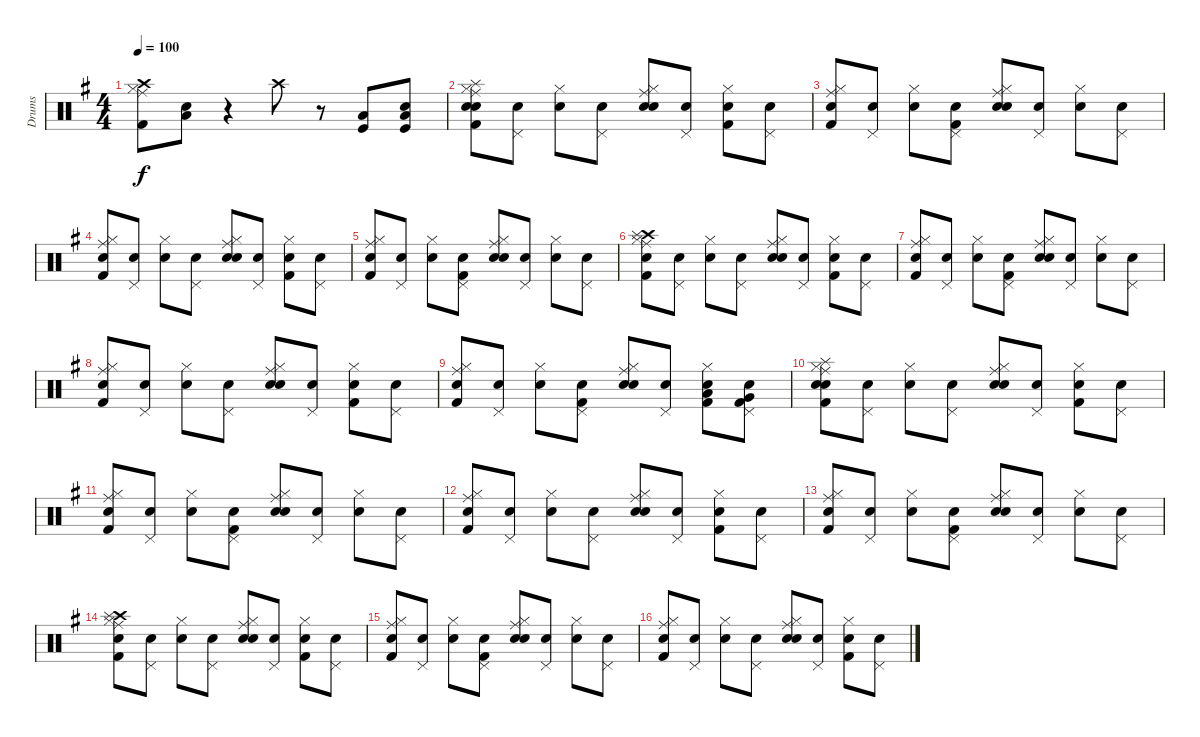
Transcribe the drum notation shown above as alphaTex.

\track ("Drums" "Drums") {instrument percussion}
\staff {score}
\articulation defaults
\ts (4 4)
\tempo 100
\clef neutral
\ks g
("Crash high (hit)" "Ride (middle)" "Hi-Hat (closed)" "Kick (hit) 2").8{dy f} ("Snare (hit)" "Low Tom (hit)").8 r.4 "Crash high (hit)".8 r.8 ("Kick (hit)" "Low Tom (hit)").8 ("Snare (hit)" "Kick (hit)" "Low Tom (hit)").8 |
("Snare (hit)" "Ride (middle)" "Hi-Hat (closed)" "Kick (hit) 2" "Snare (hit) 2" "Splash (hit)").8 ("Snare (hit)" "Pedal Hi-Hat (hit)").8 ("Snare (hit)" "Hi-Hat (closed)").8 ("Snare (hit)" "Pedal Hi-Hat (hit)").8 ("Snare (hit)" "Ride (middle)" "Hi-Hat (closed)" "Snare (hit) 2").8 ("Snare (hit)" "Pedal Hi-Hat (hit)").8 ("Snare (hit)" "Hi-Hat (closed)" "Kick (hit) 2").8 ("Snare (hit)" "Pedal Hi-Hat (hit)").8 |
("Snare (hit)" "Ride (middle)" "Hi-Hat (closed)" "Kick (hit) 2").8 ("Snare (hit)" "Pedal Hi-Hat (hit)").8 ("Snare (hit)" "Hi-Hat (closed)").8 ("Snare (hit)" "Pedal Hi-Hat (hit)" "Kick (hit) 2").8 ("Snare (hit)" "Ride (middle)" "Hi-Hat (closed)" "Snare (hit) 2").8 ("Snare (hit)" "Pedal Hi-Hat (hit)").8 ("Snare (hit)" "Hi-Hat (closed)").8 ("Snare (hit)" "Pedal Hi-Hat (hit)").8 |
("Snare (hit)" "Kick (hit) 2" "Ride (middle)" "Hi-Hat (closed)").8 ("Snare (hit)" "Pedal Hi-Hat (hit)").8 ("Snare (hit)" "Hi-Hat (closed)").8 ("Snare (hit)" "Pedal Hi-Hat (hit)").8 ("Snare (hit)" "Ride (middle)" "Hi-Hat (closed)" "Snare (hit) 2").8 ("Snare (hit)" "Pedal Hi-Hat (hit)").8 ("Snare (hit)" "Hi-Hat (closed)" "Kick (hit) 2").8 ("Snare (hit)" "Pedal Hi-Hat (hit)").8 |
("Snare (hit)" "Ride (middle)" "Hi-Hat (closed)" "Kick (hit) 2").8 ("Snare (hit)" "Pedal Hi-Hat (hit)").8 ("Snare (hit)" "Hi-Hat (closed)").8 ("Snare (hit)" "Pedal Hi-Hat (hit)" "Kick (hit) 2").8 ("Snare (hit)" "Ride (middle)" "Hi-Hat (closed)" "Snare (hit) 2").8 ("Snare (hit)" "Pedal Hi-Hat (hit)").8 ("Snare (hit)" "Hi-Hat (closed)").8 ("Snare (hit)" "Pedal Hi-Hat (hit)").8 |
("Snare (hit)" "Hi-Hat (closed)" "Ride (middle)" "Kick (hit) 2" "Crash high (hit)" "Splash (hit)").8 ("Snare (hit)" "Pedal Hi-Hat (hit)").8 ("Snare (hit)" "Hi-Hat (closed)").8 ("Snare (hit)" "Pedal Hi-Hat (hit)").8 ("Snare (hit)" "Ride (middle)" "Hi-Hat (closed)" "Snare (hit) 2").8 ("Snare (hit)" "Pedal Hi-Hat (hit)").8 ("Snare (hit)" "Hi-Hat (closed)" "Kick (hit) 2").8 ("Snare (hit)" "Pedal Hi-Hat (hit)").8 |
("Snare (hit)" "Ride (middle)" "Hi-Hat (closed)" "Kick (hit) 2").8 ("Snare (hit)" "Pedal Hi-Hat (hit)").8 ("Snare (hit)" "Hi-Hat (closed)").8 ("Snare (hit)" "Pedal Hi-Hat (hit)" "Kick (hit) 2").8 ("Snare (hit)" "Ride (middle)" "Hi-Hat (closed)" "Snare (hit) 2").8 ("Snare (hit)" "Pedal Hi-Hat (hit)").8 ("Snare (hit)" "Hi-Hat (closed)").8 ("Snare (hit)" "Pedal Hi-Hat (hit)").8 |
("Snare (hit)" "Kick (hit) 2" "Ride (middle)" "Hi-Hat (closed)").8 ("Snare (hit)" "Pedal Hi-Hat (hit)").8 ("Snare (hit)" "Hi-Hat (closed)").8 ("Snare (hit)" "Pedal Hi-Hat (hit)").8 ("Snare (hit)" "Ride (middle)" "Hi-Hat (closed)" "Snare (hit) 2").8 ("Snare (hit)" "Pedal Hi-Hat (hit)").8 ("Snare (hit)" "Hi-Hat (closed)" "Kick (hit) 2").8 ("Snare (hit)" "Pedal Hi-Hat (hit)").8 |
("Snare (hit)" "Ride (middle)" "Hi-Hat (closed)" "Kick (hit) 2").8 ("Snare (hit)" "Pedal Hi-Hat (hit)").8 ("Snare (hit)" "Hi-Hat (closed)").8 ("Snare (hit)" "Pedal Hi-Hat (hit)" "Kick (hit) 2").8 ("Snare (hit)" "Ride (middle)" "Hi-Hat (closed)" "Snare (hit) 2").8 ("Snare (hit)" "Pedal Hi-Hat (hit)").8 ("Snare (hit)" "Kick (hit) 2" "Low Tom (hit)" "Hi-Hat (closed)").8 ("Snare (hit)" "Very Low Tom (hit)" "Kick (hit) 2" "Pedal Hi-Hat (hit)").8 |
("Snare (hit)" "Ride (middle)" "Hi-Hat (closed)" "Kick (hit) 2" "Snare (hit) 2" "Splash (hit)").8 ("Snare (hit)" "Pedal Hi-Hat (hit)").8 ("Snare (hit)" "Hi-Hat (closed)").8 ("Snare (hit)" "Pedal Hi-Hat (hit)").8 ("Snare (hit)" "Ride (middle)" "Hi-Hat (closed)" "Snare (hit) 2").8 ("Snare (hit)" "Pedal Hi-Hat (hit)").8 ("Snare (hit)" "Hi-Hat (closed)" "Kick (hit) 2").8 ("Snare (hit)" "Pedal Hi-Hat (hit)").8 |
("Snare (hit)" "Ride (middle)" "Hi-Hat (closed)" "Kick (hit) 2").8 ("Snare (hit)" "Pedal Hi-Hat (hit)").8 ("Snare (hit)" "Hi-Hat (closed)").8 ("Snare (hit)" "Pedal Hi-Hat (hit)" "Kick (hit) 2").8 ("Snare (hit)" "Ride (middle)" "Hi-Hat (closed)" "Snare (hit) 2").8 ("Snare (hit)" "Pedal Hi-Hat (hit)").8 ("Snare (hit)" "Hi-Hat (closed)").8 ("Snare (hit)" "Pedal Hi-Hat (hit)").8 |
("Snare (hit)" "Kick (hit) 2" "Ride (middle)" "Hi-Hat (closed)").8 ("Snare (hit)" "Pedal Hi-Hat (hit)").8 ("Snare (hit)" "Hi-Hat (closed)").8 ("Snare (hit)" "Pedal Hi-Hat (hit)").8 ("Snare (hit)" "Ride (middle)" "Hi-Hat (closed)" "Snare (hit) 2").8 ("Snare (hit)" "Pedal Hi-Hat (hit)").8 ("Snare (hit)" "Hi-Hat (closed)" "Kick (hit) 2").8 ("Snare (hit)" "Pedal Hi-Hat (hit)").8 |
("Snare (hit)" "Ride (middle)" "Hi-Hat (closed)" "Kick (hit) 2").8 ("Snare (hit)" "Pedal Hi-Hat (hit)").8 ("Snare (hit)" "Hi-Hat (closed)").8 ("Snare (hit)" "Pedal Hi-Hat (hit)" "Kick (hit) 2").8 ("Snare (hit)" "Ride (middle)" "Hi-Hat (closed)" "Snare (hit) 2").8 ("Snare (hit)" "Pedal Hi-Hat (hit)").8 ("Snare (hit)" "Hi-Hat (closed)").8 ("Snare (hit)" "Pedal Hi-Hat (hit)").8 |
("Snare (hit)" "Hi-Hat (closed)" "Ride (middle)" "Kick (hit) 2" "Crash high (hit)" "Splash (hit)").8 ("Snare (hit)" "Pedal Hi-Hat (hit)").8 ("Snare (hit)" "Hi-Hat (closed)").8 ("Snare (hit)" "Pedal Hi-Hat (hit)").8 ("Snare (hit)" "Ride (middle)" "Hi-Hat (closed)" "Snare (hit) 2").8 ("Snare (hit)" "Pedal Hi-Hat (hit)").8 ("Snare (hit)" "Hi-Hat (closed)" "Kick (hit) 2").8 ("Snare (hit)" "Pedal Hi-Hat (hit)").8 |
("Snare (hit)" "Ride (middle)" "Hi-Hat (closed)" "Kick (hit) 2").8 ("Snare (hit)" "Pedal Hi-Hat (hit)").8 ("Snare (hit)" "Hi-Hat (closed)").8 ("Snare (hit)" "Pedal Hi-Hat (hit)" "Kick (hit) 2").8 ("Snare (hit)" "Ride (middle)" "Hi-Hat (closed)" "Snare (hit) 2").8 ("Snare (hit)" "Pedal Hi-Hat (hit)").8 ("Snare (hit)" "Hi-Hat (closed)").8 ("Snare (hit)" "Pedal Hi-Hat (hit)").8 |
("Snare (hit)" "Kick (hit) 2" "Ride (middle)" "Hi-Hat (closed)").8 ("Snare (hit)" "Pedal Hi-Hat (hit)").8 ("Snare (hit)" "Hi-Hat (closed)").8 ("Snare (hit)" "Pedal Hi-Hat (hit)").8 ("Snare (hit)" "Ride (middle)" "Hi-Hat (closed)" "Snare (hit) 2").8 ("Snare (hit)" "Pedal Hi-Hat (hit)").8 ("Snare (hit)" "Hi-Hat (closed)" "Kick (hit) 2").8 ("Snare (hit)" "Pedal Hi-Hat (hit)").8
